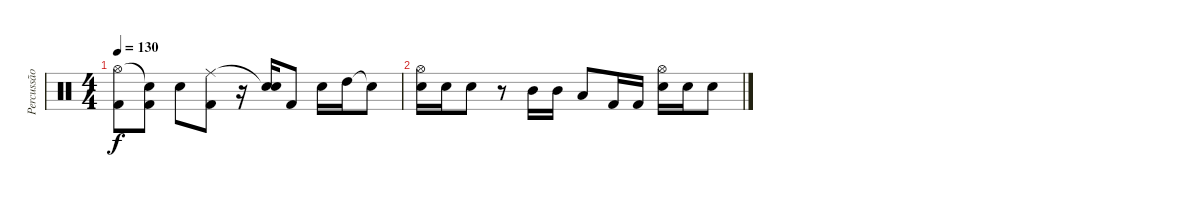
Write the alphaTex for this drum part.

\track ("Percussão" "Percussão") {instrument percussion}
\staff {score}
\articulation defaults
\ts (4 4)
\tempo 130
\clef neutral
\ks c
("Hi-Hat (open)" "Kick (hit) 2").8{dy f} ("Snare (hit)"{t} "Kick (hit) 2").8 "Electric Snare (hit)".8 ("Ride (middle)" "Kick (hit) 2").8 r.16 ("Snare (hit)"{t} "Electric Snare (hit)").16 "Kick (hit) 2".8 "Electric Snare (hit)".16 "High Tom (hit)".16 "Snare (hit)"{t}.8 |
("Hi-Hat (open)" "Electric Snare (hit)").16 "Electric Snare (hit)".16 "Electric Snare (hit)".8 r.8 "Mid Tom (hit)".16 "Mid Tom (hit)".16 "Low Tom (hit)".8 "Kick (hit) 2".16 "Kick (hit) 2".16 ("Hi-Hat (open)" "Electric Snare (hit)").16 "Electric Snare (hit)".16 "Electric Snare (hit)".8
